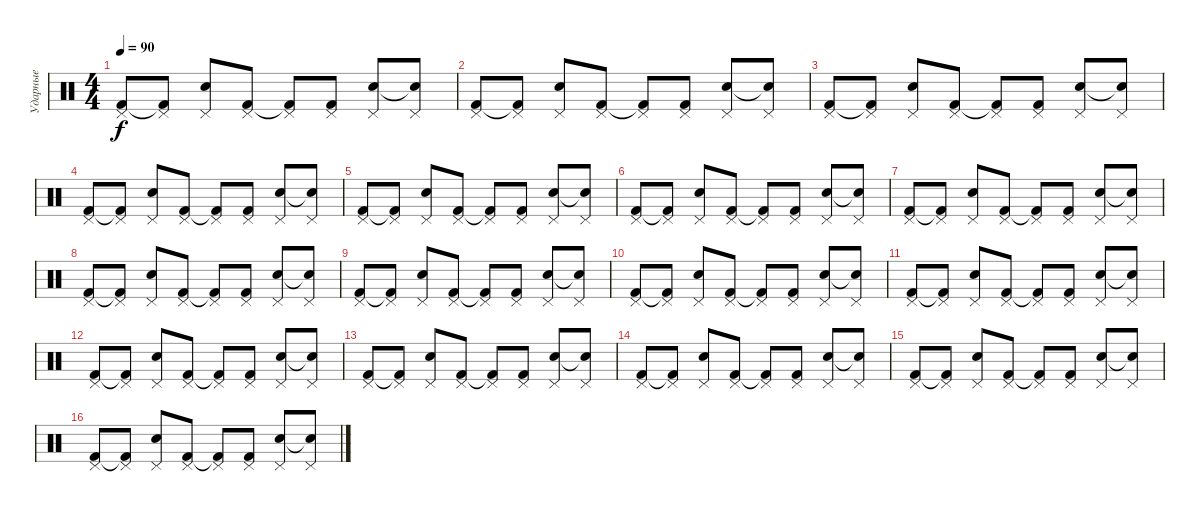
\track ("Ударные" "Ударные") {instrument percussion}
\staff {score}
\articulation defaults
\ts (4 4)
\tempo 90
\clef neutral
\ks c
("Kick (hit) 2" "Pedal Hi-Hat (hit)").8{dy f} ("Kick (hit) 2"{t} "Pedal Hi-Hat (hit)").8 ("Snare (hit) 2" "Pedal Hi-Hat (hit)").8 ("Kick (hit) 2" "Pedal Hi-Hat (hit)").8 ("Kick (hit) 2"{t} "Pedal Hi-Hat (hit)").8 ("Kick (hit) 2" "Pedal Hi-Hat (hit)").8 ("Snare (hit) 2" "Pedal Hi-Hat (hit)").8 ("Snare (hit) 2"{t} "Pedal Hi-Hat (hit)").8 |
("Kick (hit) 2" "Pedal Hi-Hat (hit)").8 ("Kick (hit) 2"{t} "Pedal Hi-Hat (hit)").8 ("Snare (hit) 2" "Pedal Hi-Hat (hit)").8 ("Kick (hit) 2" "Pedal Hi-Hat (hit)").8 ("Kick (hit) 2"{t} "Pedal Hi-Hat (hit)").8 ("Kick (hit) 2" "Pedal Hi-Hat (hit)").8 ("Snare (hit) 2" "Pedal Hi-Hat (hit)").8 ("Snare (hit) 2"{t} "Pedal Hi-Hat (hit)").8 |
("Kick (hit) 2" "Pedal Hi-Hat (hit)").8 ("Kick (hit) 2"{t} "Pedal Hi-Hat (hit)").8 ("Snare (hit) 2" "Pedal Hi-Hat (hit)").8 ("Kick (hit) 2" "Pedal Hi-Hat (hit)").8 ("Kick (hit) 2"{t} "Pedal Hi-Hat (hit)").8 ("Kick (hit) 2" "Pedal Hi-Hat (hit)").8 ("Snare (hit) 2" "Pedal Hi-Hat (hit)").8 ("Snare (hit) 2"{t} "Pedal Hi-Hat (hit)").8 |
("Kick (hit) 2" "Pedal Hi-Hat (hit)").8 ("Kick (hit) 2"{t} "Pedal Hi-Hat (hit)").8 ("Snare (hit) 2" "Pedal Hi-Hat (hit)").8 ("Kick (hit) 2" "Pedal Hi-Hat (hit)").8 ("Kick (hit) 2"{t} "Pedal Hi-Hat (hit)").8 ("Kick (hit) 2" "Pedal Hi-Hat (hit)").8 ("Snare (hit) 2" "Pedal Hi-Hat (hit)").8 ("Snare (hit) 2"{t} "Pedal Hi-Hat (hit)").8 |
("Kick (hit) 2" "Pedal Hi-Hat (hit)").8 ("Kick (hit) 2"{t} "Pedal Hi-Hat (hit)").8 ("Snare (hit) 2" "Pedal Hi-Hat (hit)").8 ("Kick (hit) 2" "Pedal Hi-Hat (hit)").8 ("Kick (hit) 2"{t} "Pedal Hi-Hat (hit)").8 ("Kick (hit) 2" "Pedal Hi-Hat (hit)").8 ("Snare (hit) 2" "Pedal Hi-Hat (hit)").8 ("Snare (hit) 2"{t} "Pedal Hi-Hat (hit)").8 |
("Kick (hit) 2" "Pedal Hi-Hat (hit)").8 ("Kick (hit) 2"{t} "Pedal Hi-Hat (hit)").8 ("Snare (hit) 2" "Pedal Hi-Hat (hit)").8 ("Kick (hit) 2" "Pedal Hi-Hat (hit)").8 ("Kick (hit) 2"{t} "Pedal Hi-Hat (hit)").8 ("Kick (hit) 2" "Pedal Hi-Hat (hit)").8 ("Snare (hit) 2" "Pedal Hi-Hat (hit)").8 ("Snare (hit) 2"{t} "Pedal Hi-Hat (hit)").8 |
("Kick (hit) 2" "Pedal Hi-Hat (hit)").8 ("Kick (hit) 2"{t} "Pedal Hi-Hat (hit)").8 ("Snare (hit) 2" "Pedal Hi-Hat (hit)").8 ("Kick (hit) 2" "Pedal Hi-Hat (hit)").8 ("Kick (hit) 2"{t} "Pedal Hi-Hat (hit)").8 ("Kick (hit) 2" "Pedal Hi-Hat (hit)").8 ("Snare (hit) 2" "Pedal Hi-Hat (hit)").8 ("Snare (hit) 2"{t} "Pedal Hi-Hat (hit)").8 |
("Kick (hit) 2" "Pedal Hi-Hat (hit)").8 ("Kick (hit) 2"{t} "Pedal Hi-Hat (hit)").8 ("Snare (hit) 2" "Pedal Hi-Hat (hit)").8 ("Kick (hit) 2" "Pedal Hi-Hat (hit)").8 ("Kick (hit) 2"{t} "Pedal Hi-Hat (hit)").8 ("Kick (hit) 2" "Pedal Hi-Hat (hit)").8 ("Snare (hit) 2" "Pedal Hi-Hat (hit)").8 ("Snare (hit) 2"{t} "Pedal Hi-Hat (hit)").8 |
("Kick (hit) 2" "Pedal Hi-Hat (hit)").8 ("Kick (hit) 2"{t} "Pedal Hi-Hat (hit)").8 ("Snare (hit) 2" "Pedal Hi-Hat (hit)").8 ("Kick (hit) 2" "Pedal Hi-Hat (hit)").8 ("Kick (hit) 2"{t} "Pedal Hi-Hat (hit)").8 ("Kick (hit) 2" "Pedal Hi-Hat (hit)").8 ("Snare (hit) 2" "Pedal Hi-Hat (hit)").8 ("Snare (hit) 2"{t} "Pedal Hi-Hat (hit)").8 |
("Kick (hit) 2" "Pedal Hi-Hat (hit)").8 ("Kick (hit) 2"{t} "Pedal Hi-Hat (hit)").8 ("Snare (hit) 2" "Pedal Hi-Hat (hit)").8 ("Kick (hit) 2" "Pedal Hi-Hat (hit)").8 ("Kick (hit) 2"{t} "Pedal Hi-Hat (hit)").8 ("Kick (hit) 2" "Pedal Hi-Hat (hit)").8 ("Snare (hit) 2" "Pedal Hi-Hat (hit)").8 ("Snare (hit) 2"{t} "Pedal Hi-Hat (hit)").8 |
("Kick (hit) 2" "Pedal Hi-Hat (hit)").8 ("Kick (hit) 2"{t} "Pedal Hi-Hat (hit)").8 ("Snare (hit) 2" "Pedal Hi-Hat (hit)").8 ("Kick (hit) 2" "Pedal Hi-Hat (hit)").8 ("Kick (hit) 2"{t} "Pedal Hi-Hat (hit)").8 ("Kick (hit) 2" "Pedal Hi-Hat (hit)").8 ("Snare (hit) 2" "Pedal Hi-Hat (hit)").8 ("Snare (hit) 2"{t} "Pedal Hi-Hat (hit)").8 |
("Kick (hit) 2" "Pedal Hi-Hat (hit)").8 ("Kick (hit) 2"{t} "Pedal Hi-Hat (hit)").8 ("Snare (hit) 2" "Pedal Hi-Hat (hit)").8 ("Kick (hit) 2" "Pedal Hi-Hat (hit)").8 ("Kick (hit) 2"{t} "Pedal Hi-Hat (hit)").8 ("Kick (hit) 2" "Pedal Hi-Hat (hit)").8 ("Snare (hit) 2" "Pedal Hi-Hat (hit)").8 ("Snare (hit) 2"{t} "Pedal Hi-Hat (hit)").8 |
("Kick (hit) 2" "Pedal Hi-Hat (hit)").8 ("Kick (hit) 2"{t} "Pedal Hi-Hat (hit)").8 ("Snare (hit) 2" "Pedal Hi-Hat (hit)").8 ("Kick (hit) 2" "Pedal Hi-Hat (hit)").8 ("Kick (hit) 2"{t} "Pedal Hi-Hat (hit)").8 ("Kick (hit) 2" "Pedal Hi-Hat (hit)").8 ("Snare (hit) 2" "Pedal Hi-Hat (hit)").8 ("Snare (hit) 2"{t} "Pedal Hi-Hat (hit)").8 |
("Kick (hit) 2" "Pedal Hi-Hat (hit)").8 ("Kick (hit) 2"{t} "Pedal Hi-Hat (hit)").8 ("Snare (hit) 2" "Pedal Hi-Hat (hit)").8 ("Kick (hit) 2" "Pedal Hi-Hat (hit)").8 ("Kick (hit) 2"{t} "Pedal Hi-Hat (hit)").8 ("Kick (hit) 2" "Pedal Hi-Hat (hit)").8 ("Snare (hit) 2" "Pedal Hi-Hat (hit)").8 ("Snare (hit) 2"{t} "Pedal Hi-Hat (hit)").8 |
("Kick (hit) 2" "Pedal Hi-Hat (hit)").8 ("Kick (hit) 2"{t} "Pedal Hi-Hat (hit)").8 ("Snare (hit) 2" "Pedal Hi-Hat (hit)").8 ("Kick (hit) 2" "Pedal Hi-Hat (hit)").8 ("Kick (hit) 2"{t} "Pedal Hi-Hat (hit)").8 ("Kick (hit) 2" "Pedal Hi-Hat (hit)").8 ("Snare (hit) 2" "Pedal Hi-Hat (hit)").8 ("Snare (hit) 2"{t} "Pedal Hi-Hat (hit)").8 |
("Kick (hit) 2" "Pedal Hi-Hat (hit)").8 ("Kick (hit) 2"{t} "Pedal Hi-Hat (hit)").8 ("Snare (hit) 2" "Pedal Hi-Hat (hit)").8 ("Kick (hit) 2" "Pedal Hi-Hat (hit)").8 ("Kick (hit) 2"{t} "Pedal Hi-Hat (hit)").8 ("Kick (hit) 2" "Pedal Hi-Hat (hit)").8 ("Snare (hit) 2" "Pedal Hi-Hat (hit)").8 ("Snare (hit) 2"{t} "Pedal Hi-Hat (hit)").8
